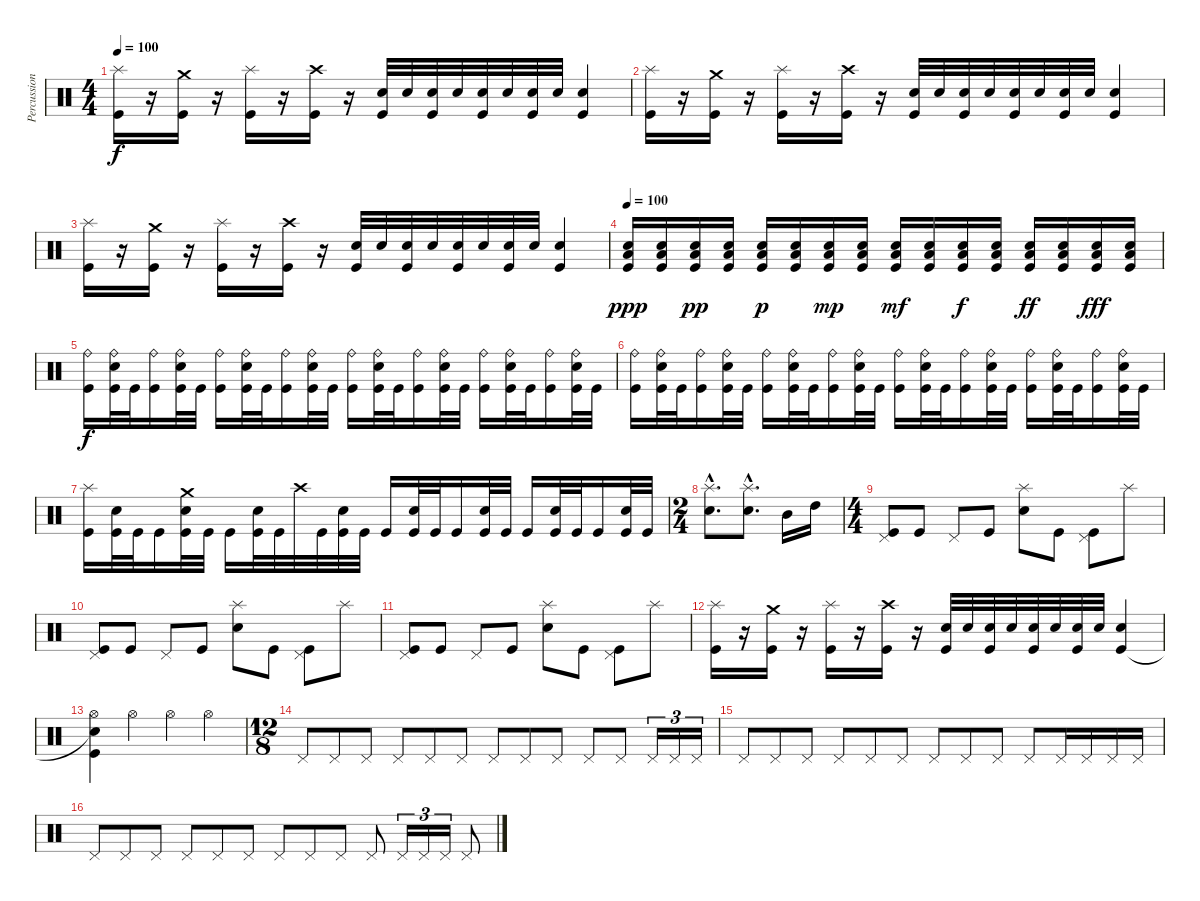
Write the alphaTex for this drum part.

\track ("Percussioni" "Percussion") {instrument percussion}
\staff {score}
\articulation defaults
\ts (4 4)
\tempo 100
\clef neutral
\ks c
("Splash (hit)" "Kick (hit)").16{dy f} r.16 ("Crash medium (hit)" "Kick (hit)").16 r.16 ("Splash (hit)" "Kick (hit)").16 r.16 ("Crash high (hit)" "Kick (hit)").16 r.16 ("Snare (hit) 2" "Kick (hit)").32 "Snare (hit) 2".32 ("Snare (hit) 2" "Kick (hit)").32 "Snare (hit) 2".32 ("Snare (hit) 2" "Kick (hit)").32 "Snare (hit) 2".32 ("Snare (hit) 2" "Kick (hit)").32 "Snare (hit) 2".32 ("Snare (hit) 2" "Kick (hit)").4 |
("Splash (hit)" "Kick (hit)").16 r.16 ("Crash medium (hit)" "Kick (hit)").16 r.16 ("Splash (hit)" "Kick (hit)").16 r.16 ("Crash high (hit)" "Kick (hit)").16 r.16 ("Snare (hit) 2" "Kick (hit)").32 "Snare (hit) 2".32 ("Snare (hit) 2" "Kick (hit)").32 "Snare (hit) 2".32 ("Snare (hit) 2" "Kick (hit)").32 "Snare (hit) 2".32 ("Snare (hit) 2" "Kick (hit)").32 "Snare (hit) 2".32 ("Snare (hit) 2" "Kick (hit)").4 |
("Splash (hit)" "Kick (hit)").16 r.16 ("Crash medium (hit)" "Kick (hit)").16 r.16 ("Splash (hit)" "Kick (hit)").16 r.16 ("Crash high (hit)" "Kick (hit)").16 r.16 ("Snare (hit) 2" "Kick (hit)").32 "Snare (hit) 2".32 ("Snare (hit) 2" "Kick (hit)").32 "Snare (hit) 2".32 ("Snare (hit) 2" "Kick (hit)").32 "Snare (hit) 2".32 ("Snare (hit) 2" "Kick (hit)").32 "Snare (hit) 2".32 ("Snare (hit) 2" "Kick (hit)").4 |
\tempo 100
("Low Tom (hit)" "Snare (hit) 2" "Kick (hit)").16{dy ppp} ("Low Tom (hit)" "Snare (hit) 2" "Kick (hit)").16 ("Low Tom (hit)" "Snare (hit) 2" "Kick (hit)").16{dy pp} ("Low Tom (hit)" "Snare (hit) 2" "Kick (hit)").16 ("Low Tom (hit)" "Snare (hit) 2" "Kick (hit)").16{dy p} ("Low Tom (hit)" "Snare (hit) 2" "Kick (hit)").16 ("Low Tom (hit)" "Snare (hit) 2" "Kick (hit)").16{dy mp} ("Low Tom (hit)" "Snare (hit) 2" "Kick (hit)").16 ("Low Tom (hit)" "Snare (hit) 2" "Kick (hit)").16{dy mf} ("Low Tom (hit)" "Snare (hit) 2" "Kick (hit)").16 ("Low Tom (hit)" "Snare (hit) 2" "Kick (hit)").16{dy f} ("Low Tom (hit)" "Snare (hit) 2" "Kick (hit)").16 ("Low Tom (hit)" "Snare (hit) 2" "Kick (hit)").16{dy ff} ("Low Tom (hit)" "Snare (hit) 2" "Kick (hit)").16 ("Low Tom (hit)" "Snare (hit) 2" "Kick (hit)").16{dy fff} ("Low Tom (hit)" "Snare (hit) 2" "Kick (hit)").16 |
("Ride (bell)" "Kick (hit)").16{dy f} ("Ride (bell)" "Snare (hit) 2" "Kick (hit)").32 "Kick (hit)".32 ("Ride (bell)" "Kick (hit)").16 ("Ride (bell)" "Snare (hit) 2" "Kick (hit)").32 "Kick (hit)".32 ("Ride (bell)" "Kick (hit)").16 ("Ride (bell)" "Snare (hit) 2" "Kick (hit)").32 "Kick (hit)".32 ("Ride (bell)" "Kick (hit)").16 ("Ride (bell)" "Snare (hit) 2" "Kick (hit)").32 "Kick (hit)".32 ("Ride (bell)" "Kick (hit)").16 ("Ride (bell)" "Snare (hit) 2" "Kick (hit)").32 "Kick (hit)".32 ("Ride (bell)" "Kick (hit)").16 ("Ride (bell)" "Snare (hit) 2" "Kick (hit)").32 "Kick (hit)".32 ("Ride (bell)" "Kick (hit)").16 ("Ride (bell)" "Snare (hit) 2" "Kick (hit)").32 "Kick (hit)".32 ("Ride (bell)" "Kick (hit)").16 ("Ride (bell)" "Snare (hit) 2" "Kick (hit)").32 "Kick (hit)".32 |
("Ride (bell)" "Kick (hit)").16 ("Ride (bell)" "Snare (hit) 2" "Kick (hit)").32 "Kick (hit)".32 ("Ride (bell)" "Kick (hit)").16 ("Ride (bell)" "Snare (hit) 2" "Kick (hit)").32 "Kick (hit)".32 ("Ride (bell)" "Kick (hit)").16 ("Ride (bell)" "Snare (hit) 2" "Kick (hit)").32 "Kick (hit)".32 ("Ride (bell)" "Kick (hit)").16 ("Ride (bell)" "Snare (hit) 2" "Kick (hit)").32 "Kick (hit)".32 ("Ride (bell)" "Kick (hit)").16 ("Ride (bell)" "Snare (hit) 2" "Kick (hit)").32 "Kick (hit)".32 ("Ride (bell)" "Kick (hit)").16 ("Ride (bell)" "Snare (hit) 2" "Kick (hit)").32 "Kick (hit)".32 ("Ride (bell)" "Kick (hit)").16 ("Ride (bell)" "Snare (hit) 2" "Kick (hit)").32 "Kick (hit)".32 ("Ride (bell)" "Kick (hit)").16 ("Ride (bell)" "Snare (hit) 2" "Kick (hit)").32 "Kick (hit)".32 |
("Splash (hit)" "Kick (hit)").16 ("Snare (hit) 2" "Kick (hit)").32 "Kick (hit)".32 "Kick (hit)".16 ("Crash medium (hit)" "Snare (hit) 2" "Kick (hit)").32 "Kick (hit)".32 "Kick (hit)".16 ("Snare (hit) 2" "Kick (hit)").32 "Kick (hit)".32 "Crash high (hit)".32 "Kick (hit)".32 ("Snare (hit) 2" "Kick (hit)").32 "Kick (hit)".32 "Kick (hit)".16 ("Snare (hit) 2" "Kick (hit)").32 "Kick (hit)".32 "Kick (hit)".16 ("Snare (hit) 2" "Kick (hit)").32 "Kick (hit)".32 "Kick (hit)".16 ("Snare (hit) 2" "Kick (hit)").32 "Kick (hit)".32 "Kick (hit)".16 ("Snare (hit) 2" "Kick (hit)").32 "Kick (hit)".32 |
\ts (2 4)
("Splash (hit)"{hac} "Snare (hit) 2"{hac}).8{d} ("Splash (hit)"{hac} "Snare (hit) 2"{hac}).8{d} "Mid Tom (hit)".16 "High Tom (hit)".16 |
\ts (4 4)
("Pedal Hi-Hat (hit)" "Kick (hit)").8 "Kick (hit)".8 "Pedal Hi-Hat (hit)".8 "Kick (hit)".8 ("Splash (hit)" "Snare (hit) 2").8 "Kick (hit)".8 ("Pedal Hi-Hat (hit)" "Kick (hit)").8 "Splash (hit)".8 |
("Pedal Hi-Hat (hit)" "Kick (hit)").8 "Kick (hit)".8 "Pedal Hi-Hat (hit)".8 "Kick (hit)".8 ("Splash (hit)" "Snare (hit) 2").8 "Kick (hit)".8 ("Pedal Hi-Hat (hit)" "Kick (hit)").8 "Splash (hit)".8 |
("Pedal Hi-Hat (hit)" "Kick (hit)").8 "Kick (hit)".8 "Pedal Hi-Hat (hit)".8 "Kick (hit)".8 ("Splash (hit)" "Snare (hit) 2").8 "Kick (hit)".8 ("Pedal Hi-Hat (hit)" "Kick (hit)").8 "Splash (hit)".8 |
("Splash (hit)" "Kick (hit)").16 r.16 ("Crash medium (hit)" "Kick (hit)").16 r.16 ("Splash (hit)" "Kick (hit)").16 r.16 ("Crash high (hit)" "Kick (hit)").16 r.16 ("Snare (hit) 2" "Kick (hit)").32 "Snare (hit) 2".32 ("Snare (hit) 2" "Kick (hit)").32 "Snare (hit) 2".32 ("Snare (hit) 2" "Kick (hit)").32 "Snare (hit) 2".32 ("Snare (hit) 2" "Kick (hit)").32 "Snare (hit) 2".32 ("Snare (hit) 2" "Kick (hit)").4 |
("Hi-Hat (open)" "Snare (hit) 2"{t} "Kick (hit)").4 "Hi-Hat (open)".4 "Hi-Hat (open)".4 "Hi-Hat (open)".4 |
\ts (12 8)
"Pedal Hi-Hat (hit)".8 "Pedal Hi-Hat (hit)".8 "Pedal Hi-Hat (hit)".8 "Pedal Hi-Hat (hit)".8 "Pedal Hi-Hat (hit)".8 "Pedal Hi-Hat (hit)".8 "Pedal Hi-Hat (hit)".8 "Pedal Hi-Hat (hit)".8 "Pedal Hi-Hat (hit)".8 "Pedal Hi-Hat (hit)".8 "Pedal Hi-Hat (hit)".8 "Pedal Hi-Hat (hit)".16{tu (3 2)} "Pedal Hi-Hat (hit)".16{tu (3 2)} "Pedal Hi-Hat (hit)".16{tu (3 2)} |
"Pedal Hi-Hat (hit)".8 "Pedal Hi-Hat (hit)".8 "Pedal Hi-Hat (hit)".8 "Pedal Hi-Hat (hit)".8 "Pedal Hi-Hat (hit)".8 "Pedal Hi-Hat (hit)".8 "Pedal Hi-Hat (hit)".8 "Pedal Hi-Hat (hit)".8 "Pedal Hi-Hat (hit)".8 "Pedal Hi-Hat (hit)".8 "Pedal Hi-Hat (hit)".16 "Pedal Hi-Hat (hit)".16 "Pedal Hi-Hat (hit)".16 "Pedal Hi-Hat (hit)".16 |
"Pedal Hi-Hat (hit)".8 "Pedal Hi-Hat (hit)".8 "Pedal Hi-Hat (hit)".8 "Pedal Hi-Hat (hit)".8 "Pedal Hi-Hat (hit)".8 "Pedal Hi-Hat (hit)".8 "Pedal Hi-Hat (hit)".8 "Pedal Hi-Hat (hit)".8 "Pedal Hi-Hat (hit)".8 "Pedal Hi-Hat (hit)".8 "Pedal Hi-Hat (hit)".16{tu (3 2)} "Pedal Hi-Hat (hit)".16{tu (3 2)} "Pedal Hi-Hat (hit)".16{tu (3 2)} "Pedal Hi-Hat (hit)".8
